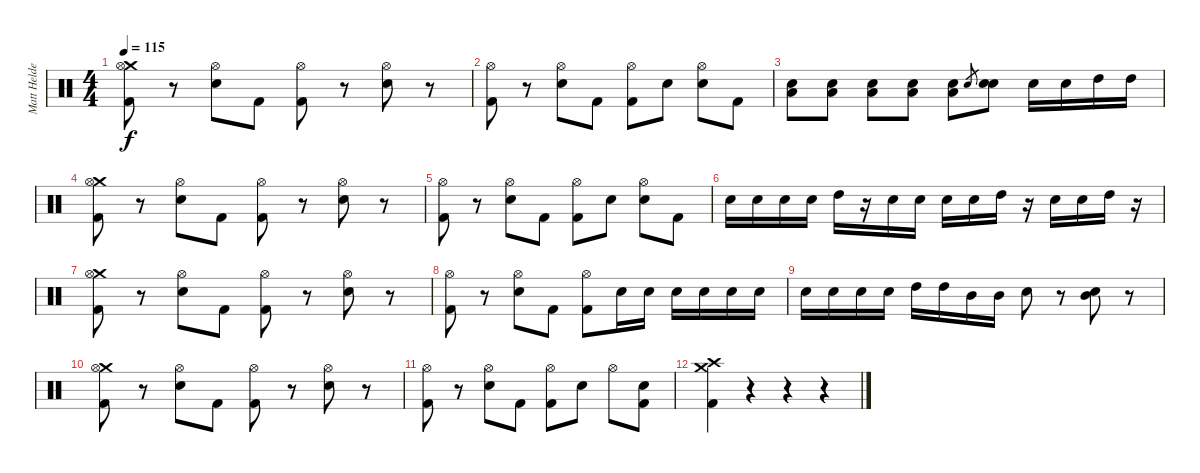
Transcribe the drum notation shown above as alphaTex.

\track ("Matt Helders (Percussion)" "Matt Helde") {instrument percussion}
\staff {score}
\articulation defaults
\ts (4 4)
\tempo 115
\clef neutral
\ks c
("Crash medium (hit)" "Hi-Hat (open)" "Kick (hit) 2").8{dy f} r.8 ("Hi-Hat (open)" "Snare (hit) 2").8 "Kick (hit) 2".8 ("Hi-Hat (open)" "Kick (hit) 2").8 r.8 ("Hi-Hat (open)" "Snare (hit) 2").8 r.8 |
("Hi-Hat (open)" "Kick (hit) 2").8 r.8 ("Hi-Hat (open)" "Snare (hit) 2").8 "Kick (hit) 2".8 ("Hi-Hat (open)" "Kick (hit) 2").8 "Snare (hit) 2".8 ("Hi-Hat (open)" "Snare (hit) 2").8 "Kick (hit) 2".8 |
("Snare (hit) 2" "Low Tom (hit)").8 ("Snare (hit) 2" "Low Tom (hit)").8 ("Snare (hit) 2" "Low Tom (hit)").8 ("Snare (hit) 2" "Low Tom (hit)").8 ("Snare (hit) 2" "Low Tom (hit)").8 "Snare (hit) 2".8{gr} ("Snare (hit) 2" "Snare (hit) 2").8 "Snare (hit) 2".16 "Snare (hit) 2".16 "High Tom (hit)".16 "High Tom (hit)".16 |
("Crash medium (hit)" "Hi-Hat (open)" "Kick (hit) 2").8 r.8 ("Hi-Hat (open)" "Snare (hit) 2").8 "Kick (hit) 2".8 ("Hi-Hat (open)" "Kick (hit) 2").8 r.8 ("Hi-Hat (open)" "Snare (hit) 2").8 r.8 |
("Hi-Hat (open)" "Kick (hit) 2").8 r.8 ("Hi-Hat (open)" "Snare (hit) 2").8 "Kick (hit) 2".8 ("Hi-Hat (open)" "Kick (hit) 2").8 "Snare (hit) 2".8 ("Hi-Hat (open)" "Snare (hit) 2").8 "Kick (hit) 2".8 |
"Snare (hit) 2".16 "Snare (hit) 2".16 "Snare (hit) 2".16 "Snare (hit) 2".16 "High Tom (hit)".16 r.16 "Snare (hit) 2".16 "Snare (hit) 2".16 "Snare (hit) 2".16 "Snare (hit) 2".16 "High Tom (hit)".16 r.16 "Snare (hit) 2".16 "Snare (hit) 2".16 "High Tom (hit)".16 r.16 |
("Crash medium (hit)" "Hi-Hat (open)" "Kick (hit) 2").8 r.8 ("Hi-Hat (open)" "Snare (hit) 2").8 "Kick (hit) 2".8 ("Hi-Hat (open)" "Kick (hit) 2").8 r.8 ("Hi-Hat (open)" "Snare (hit) 2").8 r.8 |
("Hi-Hat (open)" "Kick (hit) 2").8 r.8 ("Hi-Hat (open)" "Snare (hit) 2").8 "Kick (hit) 2".8 ("Hi-Hat (open)" "Kick (hit) 2").8 "Snare (hit) 2".16 "Snare (hit) 2".16 "Snare (hit) 2".16 "Snare (hit) 2".16 "Snare (hit) 2".16 "Snare (hit) 2".16 |
"Snare (hit) 2".16 "Snare (hit) 2".16 "Snare (hit) 2".16 "Snare (hit) 2".16 "High Tom (hit)".16 "High Tom (hit)".16 "Mid Tom (hit)".16 "Mid Tom (hit)".16 "Snare (hit) 2".8 r.8 ("Snare (hit) 2" "Mid Tom (hit)").8 r.8 |
("Crash medium (hit)" "Hi-Hat (open)" "Kick (hit) 2").8 r.8 ("Hi-Hat (open)" "Snare (hit) 2").8 "Kick (hit) 2".8 ("Hi-Hat (open)" "Kick (hit) 2").8 r.8 ("Hi-Hat (open)" "Snare (hit) 2").8 r.8 |
("Hi-Hat (open)" "Kick (hit) 2").8 r.8 ("Hi-Hat (open)" "Snare (hit) 2").8 "Kick (hit) 2".8 ("Hi-Hat (open)" "Kick (hit) 2").8 "Snare (hit) 2".8 "Hi-Hat (open)".8 ("Snare (hit) 2" "Kick (hit) 2").8 |
("Crash medium (hit)" "Crash high (hit)" "Kick (hit) 2").4 r.4 r.4 r.4
